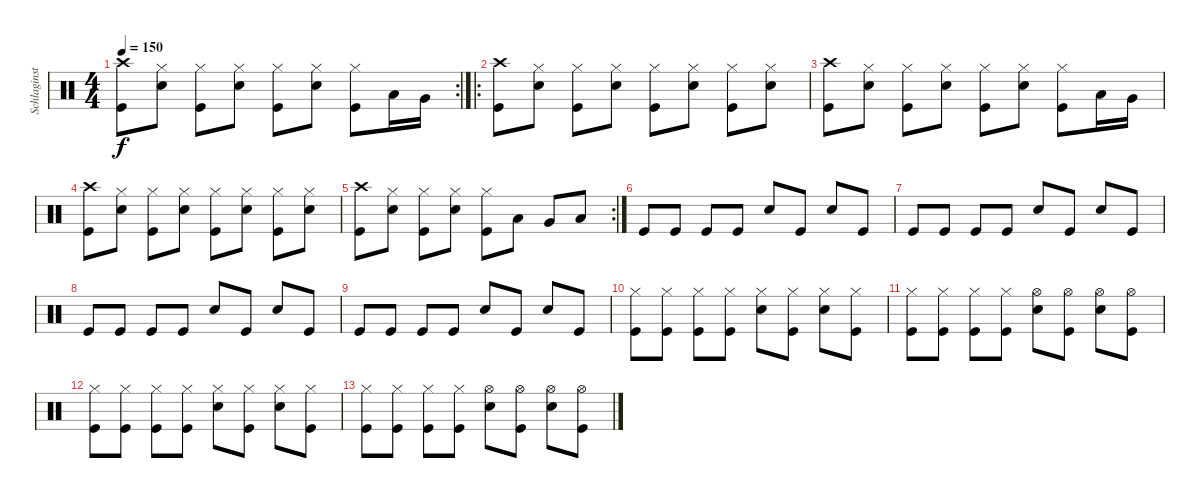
\track ("Schlaginstrumente - Auswahl" "Schlaginst") {instrument percussion}
\staff {score}
\articulation defaults
\rc 2
\ts (4 4)
\tempo 150
\clef neutral
\ks c
("Crash high (hit)" "Kick (hit)").8{dy f} ("Hi-Hat (closed)" "Electric Snare (hit)").8 ("Hi-Hat (closed)" "Kick (hit)").8 ("Hi-Hat (closed)" "Electric Snare (hit)").8 ("Hi-Hat (closed)" "Kick (hit)").8 ("Hi-Hat (closed)" "Electric Snare (hit)").8 ("Hi-Hat (closed)" "Kick (hit)").8 "Low Tom (hit)".16 "Very Low Tom (hit)".16 |
\ro
("Crash high (hit)" "Kick (hit)").8 ("Hi-Hat (closed)" "Electric Snare (hit)").8 ("Hi-Hat (closed)" "Kick (hit)").8 ("Hi-Hat (closed)" "Electric Snare (hit)").8 ("Hi-Hat (closed)" "Kick (hit)").8 ("Hi-Hat (closed)" "Electric Snare (hit)").8 ("Hi-Hat (closed)" "Kick (hit)").8 ("Hi-Hat (closed)" "Electric Snare (hit)").8 |
("Crash high (hit)" "Kick (hit)").8 ("Hi-Hat (closed)" "Electric Snare (hit)").8 ("Hi-Hat (closed)" "Kick (hit)").8 ("Hi-Hat (closed)" "Electric Snare (hit)").8 ("Hi-Hat (closed)" "Kick (hit)").8 ("Hi-Hat (closed)" "Electric Snare (hit)").8 ("Hi-Hat (closed)" "Kick (hit)").8 "Low Tom (hit)".16 "Very Low Tom (hit)".16 |
("Crash high (hit)" "Kick (hit)").8 ("Hi-Hat (closed)" "Electric Snare (hit)").8 ("Hi-Hat (closed)" "Kick (hit)").8 ("Hi-Hat (closed)" "Electric Snare (hit)").8 ("Hi-Hat (closed)" "Kick (hit)").8 ("Hi-Hat (closed)" "Electric Snare (hit)").8 ("Hi-Hat (closed)" "Kick (hit)").8 ("Hi-Hat (closed)" "Electric Snare (hit)").8 |
\rc 2
("Crash high (hit)" "Kick (hit)").8 ("Hi-Hat (closed)" "Electric Snare (hit)").8 ("Hi-Hat (closed)" "Kick (hit)").8 ("Hi-Hat (closed)" "Electric Snare (hit)").8 ("Hi-Hat (closed)" "Kick (hit)").8 "Low Tom (hit)".8 "Very Low Tom (hit)".8 "Low Floor Tom (hit)".8 |
"Kick (hit)".8 "Kick (hit)".8 "Kick (hit)".8 "Kick (hit)".8 "Electric Snare (hit)".8 "Kick (hit)".8 "Electric Snare (hit)".8 "Kick (hit)".8 |
"Kick (hit)".8 "Kick (hit)".8 "Kick (hit)".8 "Kick (hit)".8 "Electric Snare (hit)".8 "Kick (hit)".8 "Electric Snare (hit)".8 "Kick (hit)".8 |
"Kick (hit)".8 "Kick (hit)".8 "Kick (hit)".8 "Kick (hit)".8 "Electric Snare (hit)".8 "Kick (hit)".8 "Electric Snare (hit)".8 "Kick (hit)".8 |
"Kick (hit)".8 "Kick (hit)".8 "Kick (hit)".8 "Kick (hit)".8 "Electric Snare (hit)".8 "Kick (hit)".8 "Electric Snare (hit)".8 "Kick (hit)".8 |
("Hi-Hat (closed)" "Kick (hit)").8 ("Hi-Hat (closed)" "Kick (hit)").8 ("Hi-Hat (closed)" "Kick (hit)").8 ("Hi-Hat (closed)" "Kick (hit)").8 ("Hi-Hat (closed)" "Electric Snare (hit)").8 ("Hi-Hat (closed)" "Kick (hit)").8 ("Hi-Hat (closed)" "Electric Snare (hit)").8 ("Hi-Hat (closed)" "Kick (hit)").8 |
("Hi-Hat (closed)" "Kick (hit)").8 ("Hi-Hat (closed)" "Kick (hit)").8 ("Hi-Hat (closed)" "Kick (hit)").8 ("Hi-Hat (closed)" "Kick (hit)").8 ("Hi-Hat (open)" "Electric Snare (hit)").8 ("Hi-Hat (open)" "Kick (hit)").8 ("Hi-Hat (open)" "Electric Snare (hit)").8 ("Hi-Hat (open)" "Kick (hit)").8 |
("Hi-Hat (closed)" "Kick (hit)").8 ("Hi-Hat (closed)" "Kick (hit)").8 ("Hi-Hat (closed)" "Kick (hit)").8 ("Hi-Hat (closed)" "Kick (hit)").8 ("Hi-Hat (closed)" "Electric Snare (hit)").8 ("Hi-Hat (closed)" "Kick (hit)").8 ("Hi-Hat (closed)" "Electric Snare (hit)").8 ("Hi-Hat (closed)" "Kick (hit)").8 |
("Hi-Hat (closed)" "Kick (hit)").8 ("Hi-Hat (closed)" "Kick (hit)").8 ("Hi-Hat (closed)" "Kick (hit)").8 ("Hi-Hat (closed)" "Kick (hit)").8 ("Hi-Hat (open)" "Electric Snare (hit)").8 ("Hi-Hat (open)" "Kick (hit)").8 ("Hi-Hat (open)" "Electric Snare (hit)").8 ("Hi-Hat (open)" "Kick (hit)").8
